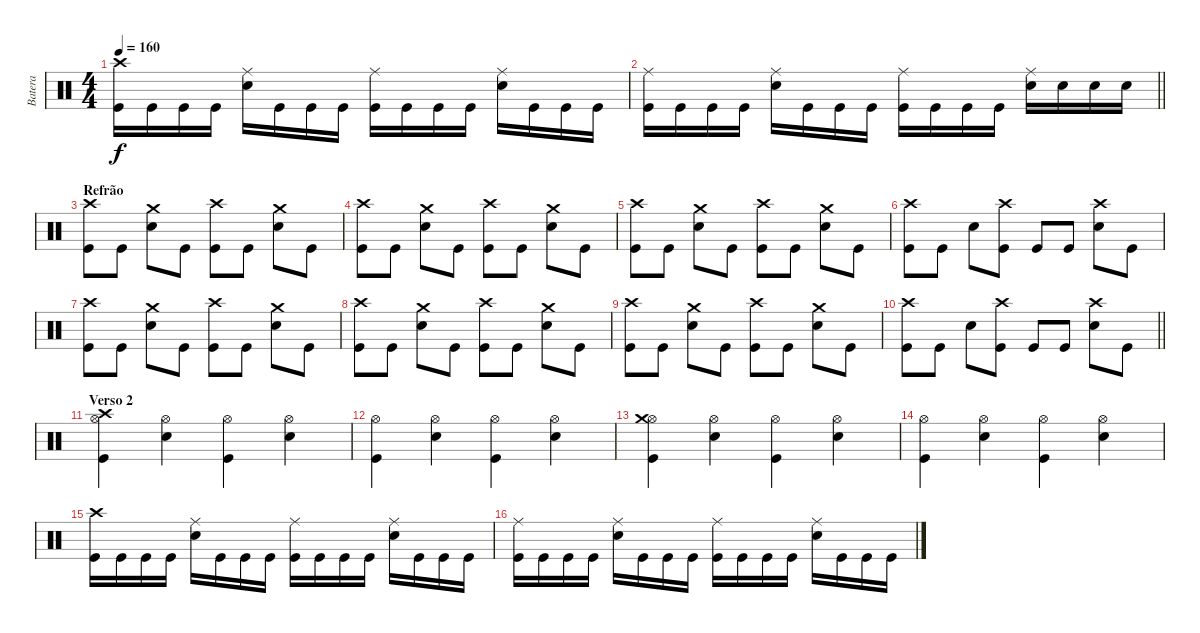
\track ("Batera" "Batera") {instrument percussion}
\staff {score}
\articulation defaults
\ts (4 4)
\tempo 160
\clef neutral
\ks c
("Kick (hit)" "Crash high (hit)").16{dy f} "Kick (hit)".16 "Kick (hit)".16 "Kick (hit)".16 ("Snare (hit) 2" "Ride (middle)").16 "Kick (hit)".16 "Kick (hit)".16 "Kick (hit)".16 ("Kick (hit)" "Ride (middle)").16 "Kick (hit)".16 "Kick (hit)".16 "Kick (hit)".16 ("Snare (hit) 2" "Ride (middle)").16 "Kick (hit)".16 "Kick (hit)".16 "Kick (hit)".16 |
\barLineRight lightlight
("Kick (hit)" "Ride (middle)").16 "Kick (hit)".16 "Kick (hit)".16 "Kick (hit)".16 ("Snare (hit) 2" "Ride (middle)").16 "Kick (hit)".16 "Kick (hit)".16 "Kick (hit)".16 ("Kick (hit)" "Ride (middle)").16 "Kick (hit)".16 "Kick (hit)".16 "Kick (hit)".16 ("Snare (hit) 2" "Ride (middle)").16 "Snare (hit) 2".16 "Snare (hit) 2".16 "Snare (hit) 2".16 |
\section ("" "Refrão")
("Kick (hit)" "Crash high (hit)").8 "Kick (hit)".8 ("Snare (hit) 2" "Crash medium (hit)").8 "Kick (hit)".8 ("Kick (hit)" "Crash high (hit)").8 "Kick (hit)".8 ("Snare (hit) 2" "Crash medium (hit)").8 "Kick (hit)".8 |
("Kick (hit)" "Crash high (hit)").8 "Kick (hit)".8 ("Snare (hit) 2" "Crash medium (hit)").8 "Kick (hit)".8 ("Kick (hit)" "Crash high (hit)").8 "Kick (hit)".8 ("Snare (hit) 2" "Crash medium (hit)").8 "Kick (hit)".8 |
("Kick (hit)" "Crash high (hit)").8 "Kick (hit)".8 ("Snare (hit) 2" "Crash medium (hit)").8 "Kick (hit)".8 ("Kick (hit)" "Crash high (hit)").8 "Kick (hit)".8 ("Snare (hit) 2" "Crash medium (hit)").8 "Kick (hit)".8 |
("Kick (hit)" "Crash high (hit)").8 "Kick (hit)".8 "Snare (hit) 2".8 ("Kick (hit)" "Crash high (hit)").8 "Kick (hit)".8 "Kick (hit)".8 ("Snare (hit) 2" "Crash high (hit)").8 "Kick (hit)".8 |
("Kick (hit)" "Crash high (hit)").8 "Kick (hit)".8 ("Snare (hit) 2" "Crash medium (hit)").8 "Kick (hit)".8 ("Kick (hit)" "Crash high (hit)").8 "Kick (hit)".8 ("Snare (hit) 2" "Crash medium (hit)").8 "Kick (hit)".8 |
("Kick (hit)" "Crash high (hit)").8 "Kick (hit)".8 ("Snare (hit) 2" "Crash medium (hit)").8 "Kick (hit)".8 ("Kick (hit)" "Crash high (hit)").8 "Kick (hit)".8 ("Snare (hit) 2" "Crash medium (hit)").8 "Kick (hit)".8 |
("Kick (hit)" "Crash high (hit)").8 "Kick (hit)".8 ("Snare (hit) 2" "Crash medium (hit)").8 "Kick (hit)".8 ("Kick (hit)" "Crash high (hit)").8 "Kick (hit)".8 ("Snare (hit) 2" "Crash medium (hit)").8 "Kick (hit)".8 |
\barLineRight lightlight
("Kick (hit)" "Crash high (hit)").8 "Kick (hit)".8 "Snare (hit) 2".8 ("Kick (hit)" "Crash high (hit)").8 "Kick (hit)".8 "Kick (hit)".8 ("Snare (hit) 2" "Crash high (hit)").8 "Kick (hit)".8 |
\section ("" "Verso 2")
("Hi-Hat (open)" "Kick (hit)" "Crash high (hit)").4 ("Hi-Hat (open)" "Snare (hit) 2").4 ("Hi-Hat (open)" "Kick (hit)").4 ("Hi-Hat (open)" "Snare (hit) 2").4 |
("Hi-Hat (open)" "Kick (hit)").4 ("Hi-Hat (open)" "Snare (hit) 2").4 ("Hi-Hat (open)" "Kick (hit)").4 ("Hi-Hat (open)" "Snare (hit) 2").4 |
("Hi-Hat (open)" "Kick (hit)" "Crash medium (hit)").4 ("Hi-Hat (open)" "Snare (hit) 2").4 ("Hi-Hat (open)" "Kick (hit)").4 ("Hi-Hat (open)" "Snare (hit) 2").4 |
("Hi-Hat (open)" "Kick (hit)").4 ("Hi-Hat (open)" "Snare (hit) 2").4 ("Hi-Hat (open)" "Kick (hit)").4 ("Hi-Hat (open)" "Snare (hit) 2").4 |
("Kick (hit)" "Crash high (hit)").16 "Kick (hit)".16 "Kick (hit)".16 "Kick (hit)".16 ("Snare (hit) 2" "Ride (middle)").16 "Kick (hit)".16 "Kick (hit)".16 "Kick (hit)".16 ("Kick (hit)" "Ride (middle)").16 "Kick (hit)".16 "Kick (hit)".16 "Kick (hit)".16 ("Snare (hit) 2" "Ride (middle)").16 "Kick (hit)".16 "Kick (hit)".16 "Kick (hit)".16 |
("Kick (hit)" "Ride (middle)").16 "Kick (hit)".16 "Kick (hit)".16 "Kick (hit)".16 ("Snare (hit) 2" "Ride (middle)").16 "Kick (hit)".16 "Kick (hit)".16 "Kick (hit)".16 ("Kick (hit)" "Ride (middle)").16 "Kick (hit)".16 "Kick (hit)".16 "Kick (hit)".16 ("Snare (hit) 2" "Ride (middle)").16 "Kick (hit)".16 "Kick (hit)".16 "Kick (hit)".16
